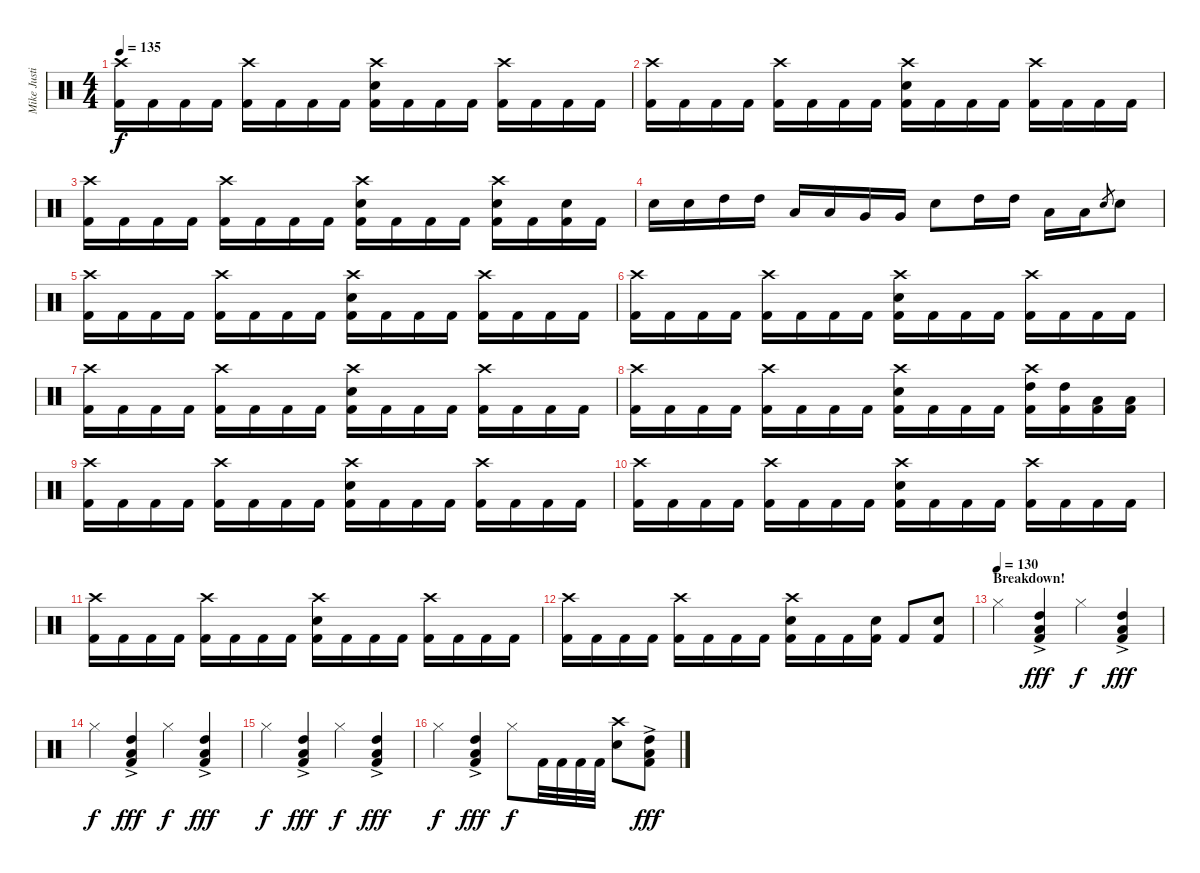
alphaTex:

\track ("Mike Justian" "Mike Justi") {instrument percussion}
\staff {score}
\articulation defaults
\ts (4 4)
\tempo 135
\clef neutral
\ks c
("Crash high (hit)" "Kick (hit) 2").16{dy f} "Kick (hit) 2".16 "Kick (hit) 2".16 "Kick (hit) 2".16 ("Crash high (hit)" "Kick (hit) 2").16 "Kick (hit) 2".16 "Kick (hit) 2".16 "Kick (hit) 2".16 ("Crash high (hit)" "Electric Snare (hit)" "Kick (hit) 2").16 "Kick (hit) 2".16 "Kick (hit) 2".16 "Kick (hit) 2".16 ("Crash high (hit)" "Kick (hit) 2").16 "Kick (hit) 2".16 "Kick (hit) 2".16 "Kick (hit) 2".16 |
("Crash high (hit)" "Kick (hit) 2").16 "Kick (hit) 2".16 "Kick (hit) 2".16 "Kick (hit) 2".16 ("Crash high (hit)" "Kick (hit) 2").16 "Kick (hit) 2".16 "Kick (hit) 2".16 "Kick (hit) 2".16 ("Crash high (hit)" "Electric Snare (hit)" "Kick (hit) 2").16 "Kick (hit) 2".16 "Kick (hit) 2".16 "Kick (hit) 2".16 ("Crash high (hit)" "Kick (hit) 2").16 "Kick (hit) 2".16 "Kick (hit) 2".16 "Kick (hit) 2".16 |
("Crash high (hit)" "Kick (hit) 2").16 "Kick (hit) 2".16 "Kick (hit) 2".16 "Kick (hit) 2".16 ("Crash high (hit)" "Kick (hit) 2").16 "Kick (hit) 2".16 "Kick (hit) 2".16 "Kick (hit) 2".16 ("Crash high (hit)" "Electric Snare (hit)" "Kick (hit) 2").16 "Kick (hit) 2".16 "Kick (hit) 2".16 "Kick (hit) 2".16 ("Crash high (hit)" "Electric Snare (hit)" "Kick (hit) 2").16 "Kick (hit) 2".16 ("Electric Snare (hit)" "Kick (hit) 2").16 "Kick (hit) 2".16 |
"Electric Snare (hit)".16 "Electric Snare (hit)".16 "High Tom (hit)".16 "High Tom (hit)".16 "Low Tom (hit)".16 "Low Tom (hit)".16 "Very Low Tom (hit)".16 "Very Low Tom (hit)".16 "Electric Snare (hit)".8 "High Tom (hit)".16 "High Tom (hit)".16 "Low Tom (hit)".16 "Low Tom (hit)".16 "Electric Snare (hit)".8{gr} "Electric Snare (hit)".8 |
("Crash high (hit)" "Kick (hit) 2").16 "Kick (hit) 2".16 "Kick (hit) 2".16 "Kick (hit) 2".16 ("Crash high (hit)" "Kick (hit) 2").16 "Kick (hit) 2".16 "Kick (hit) 2".16 "Kick (hit) 2".16 ("Crash high (hit)" "Electric Snare (hit)" "Kick (hit) 2").16 "Kick (hit) 2".16 "Kick (hit) 2".16 "Kick (hit) 2".16 ("Crash high (hit)" "Kick (hit) 2").16 "Kick (hit) 2".16 "Kick (hit) 2".16 "Kick (hit) 2".16 |
("Crash high (hit)" "Kick (hit) 2").16 "Kick (hit) 2".16 "Kick (hit) 2".16 "Kick (hit) 2".16 ("Crash high (hit)" "Kick (hit) 2").16 "Kick (hit) 2".16 "Kick (hit) 2".16 "Kick (hit) 2".16 ("Crash high (hit)" "Electric Snare (hit)" "Kick (hit) 2").16 "Kick (hit) 2".16 "Kick (hit) 2".16 "Kick (hit) 2".16 ("Crash high (hit)" "Kick (hit) 2").16 "Kick (hit) 2".16 "Kick (hit) 2".16 "Kick (hit) 2".16 |
("Crash high (hit)" "Kick (hit) 2").16 "Kick (hit) 2".16 "Kick (hit) 2".16 "Kick (hit) 2".16 ("Crash high (hit)" "Kick (hit) 2").16 "Kick (hit) 2".16 "Kick (hit) 2".16 "Kick (hit) 2".16 ("Crash high (hit)" "Electric Snare (hit)" "Kick (hit) 2").16 "Kick (hit) 2".16 "Kick (hit) 2".16 "Kick (hit) 2".16 ("Crash high (hit)" "Kick (hit) 2").16 "Kick (hit) 2".16 "Kick (hit) 2".16 "Kick (hit) 2".16 |
("Crash high (hit)" "Kick (hit) 2").16 "Kick (hit) 2".16 "Kick (hit) 2".16 "Kick (hit) 2".16 ("Crash high (hit)" "Kick (hit) 2").16 "Kick (hit) 2".16 "Kick (hit) 2".16 "Kick (hit) 2".16 ("Crash high (hit)" "Electric Snare (hit)" "Kick (hit) 2").16 "Kick (hit) 2".16 "Kick (hit) 2".16 "Kick (hit) 2".16 ("Crash high (hit)" "High Tom (hit)" "Kick (hit) 2").16 ("High Tom (hit)" "Kick (hit) 2").16 ("Low Tom (hit)" "Kick (hit) 2").16 ("Low Tom (hit)" "Kick (hit) 2").16 |
("Crash high (hit)" "Kick (hit) 2").16 "Kick (hit) 2".16 "Kick (hit) 2".16 "Kick (hit) 2".16 ("Crash high (hit)" "Kick (hit) 2").16 "Kick (hit) 2".16 "Kick (hit) 2".16 "Kick (hit) 2".16 ("Crash high (hit)" "Electric Snare (hit)" "Kick (hit) 2").16 "Kick (hit) 2".16 "Kick (hit) 2".16 "Kick (hit) 2".16 ("Crash high (hit)" "Kick (hit) 2").16 "Kick (hit) 2".16 "Kick (hit) 2".16 "Kick (hit) 2".16 |
("Crash high (hit)" "Kick (hit) 2").16 "Kick (hit) 2".16 "Kick (hit) 2".16 "Kick (hit) 2".16 ("Crash high (hit)" "Kick (hit) 2").16 "Kick (hit) 2".16 "Kick (hit) 2".16 "Kick (hit) 2".16 ("Crash high (hit)" "Electric Snare (hit)" "Kick (hit) 2").16 "Kick (hit) 2".16 "Kick (hit) 2".16 "Kick (hit) 2".16 ("Crash high (hit)" "Kick (hit) 2").16 "Kick (hit) 2".16 "Kick (hit) 2".16 "Kick (hit) 2".16 |
("Crash high (hit)" "Kick (hit) 2").16 "Kick (hit) 2".16 "Kick (hit) 2".16 "Kick (hit) 2".16 ("Crash high (hit)" "Kick (hit) 2").16 "Kick (hit) 2".16 "Kick (hit) 2".16 "Kick (hit) 2".16 ("Crash high (hit)" "Electric Snare (hit)" "Kick (hit) 2").16 "Kick (hit) 2".16 "Kick (hit) 2".16 "Kick (hit) 2".16 ("Crash high (hit)" "Kick (hit) 2").16 "Kick (hit) 2".16 "Kick (hit) 2".16 "Kick (hit) 2".16 |
("Crash high (hit)" "Kick (hit) 2").16 "Kick (hit) 2".16 "Kick (hit) 2".16 "Kick (hit) 2".16 ("Crash high (hit)" "Kick (hit) 2").16 "Kick (hit) 2".16 "Kick (hit) 2".16 "Kick (hit) 2".16 ("Crash high (hit)" "Electric Snare (hit)" "Kick (hit) 2").16 "Kick (hit) 2".16 "Kick (hit) 2".16 ("Electric Snare (hit)" "Kick (hit) 2").16 "Kick (hit) 2".8 ("Electric Snare (hit)" "Kick (hit) 2").8 |
\section ("" "Breakdown!")
\tempo (130)
"Hi-Hat (closed)".4 ("High Tom (hit)"{ac} "Low Floor Tom (hit)" "Kick (hit) 2").4{dy fff} "Hi-Hat (closed)".4{dy f} ("High Tom (hit)"{ac} "Low Floor Tom (hit)" "Kick (hit) 2").4{dy fff} |
"Hi-Hat (closed)".4{dy f} ("High Tom (hit)"{ac} "Low Floor Tom (hit)" "Kick (hit) 2").4{dy fff} "Hi-Hat (closed)".4{dy f} ("High Tom (hit)"{ac} "Low Floor Tom (hit)" "Kick (hit) 2").4{dy fff} |
"Hi-Hat (closed)".4{dy f} ("High Tom (hit)"{ac} "Low Floor Tom (hit)" "Kick (hit) 2").4{dy fff} "Hi-Hat (closed)".4{dy f} ("High Tom (hit)"{ac} "Low Floor Tom (hit)" "Kick (hit) 2").4{dy fff} |
"Hi-Hat (closed)".4{dy f} ("High Tom (hit)"{ac} "Low Floor Tom (hit)" "Kick (hit) 2").4{dy fff} "Hi-Hat (closed)".8{dy f} "Kick (hit) 2".32 "Kick (hit) 2".32 "Kick (hit) 2".32 "Kick (hit) 2".32 ("Crash high (hit)" "Electric Snare (hit)").8 ("High Tom (hit)"{ac} "Low Floor Tom (hit)" "Kick (hit) 2").8{dy fff}
